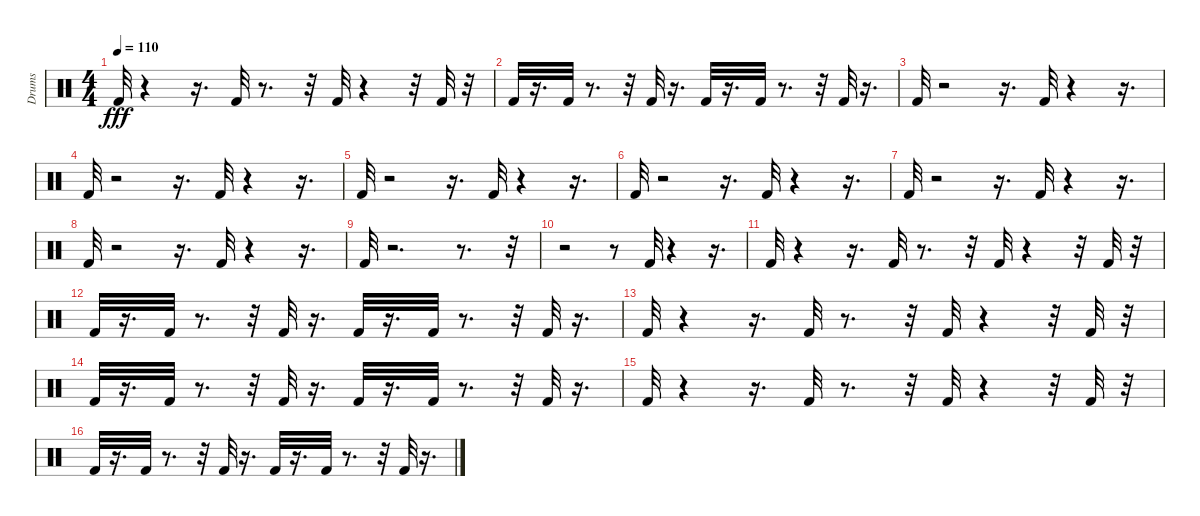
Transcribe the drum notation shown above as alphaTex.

\track ("Drums" "Drums") {instrument percussion}
\staff {score}
\articulation defaults
\ts (4 4)
\tempo 110
\clef neutral
\ks c "Kick (hit) 2".32{dy fff}
r.4 r.16{d} "Kick (hit) 2".32 r.8{d} r.32 "Kick (hit) 2".32 r.4 r.32 "Kick (hit) 2".32 r.32 |
"Kick (hit) 2".32 r.16{d} "Kick (hit) 2".32 r.8{d} r.32 "Kick (hit) 2".32 r.16{d} "Kick (hit) 2".32 r.16{d} "Kick (hit) 2".32 r.8{d} r.32 "Kick (hit) 2".32 r.16{d} |
"Kick (hit) 2".32 r.2 r.16{d} "Kick (hit) 2".32 r.4 r.16{d} |
"Kick (hit) 2".32 r.2 r.16{d} "Kick (hit) 2".32 r.4 r.16{d} |
"Kick (hit) 2".32 r.2 r.16{d} "Kick (hit) 2".32 r.4 r.16{d} |
"Kick (hit) 2".32 r.2 r.16{d} "Kick (hit) 2".32 r.4 r.16{d} |
"Kick (hit) 2".32 r.2 r.16{d} "Kick (hit) 2".32 r.4 r.16{d} |
"Kick (hit) 2".32 r.2 r.16{d} "Kick (hit) 2".32 r.4 r.16{d} |
"Kick (hit) 2".32 r.2{d} r.8{d} r.32 |
r.2 r.8 "Kick (hit) 2".32 r.4 r.16{d} |
"Kick (hit) 2".32 r.4 r.16{d} "Kick (hit) 2".32 r.8{d} r.32 "Kick (hit) 2".32 r.4 r.32 "Kick (hit) 2".32 r.32 |
"Kick (hit) 2".32 r.16{d} "Kick (hit) 2".32 r.8{d} r.32 "Kick (hit) 2".32 r.16{d} "Kick (hit) 2".32 r.16{d} "Kick (hit) 2".32 r.8{d} r.32 "Kick (hit) 2".32 r.16{d} |
"Kick (hit) 2".32 r.4 r.16{d} "Kick (hit) 2".32 r.8{d} r.32 "Kick (hit) 2".32 r.4 r.32 "Kick (hit) 2".32 r.32 |
"Kick (hit) 2".32 r.16{d} "Kick (hit) 2".32 r.8{d} r.32 "Kick (hit) 2".32 r.16{d} "Kick (hit) 2".32 r.16{d} "Kick (hit) 2".32 r.8{d} r.32 "Kick (hit) 2".32 r.16{d} |
"Kick (hit) 2".32 r.4 r.16{d} "Kick (hit) 2".32 r.8{d} r.32 "Kick (hit) 2".32 r.4 r.32 "Kick (hit) 2".32 r.32 |
"Kick (hit) 2".32 r.16{d} "Kick (hit) 2".32 r.8{d} r.32 "Kick (hit) 2".32 r.16{d} "Kick (hit) 2".32 r.16{d} "Kick (hit) 2".32 r.8{d} r.32 "Kick (hit) 2".32 r.16{d}
